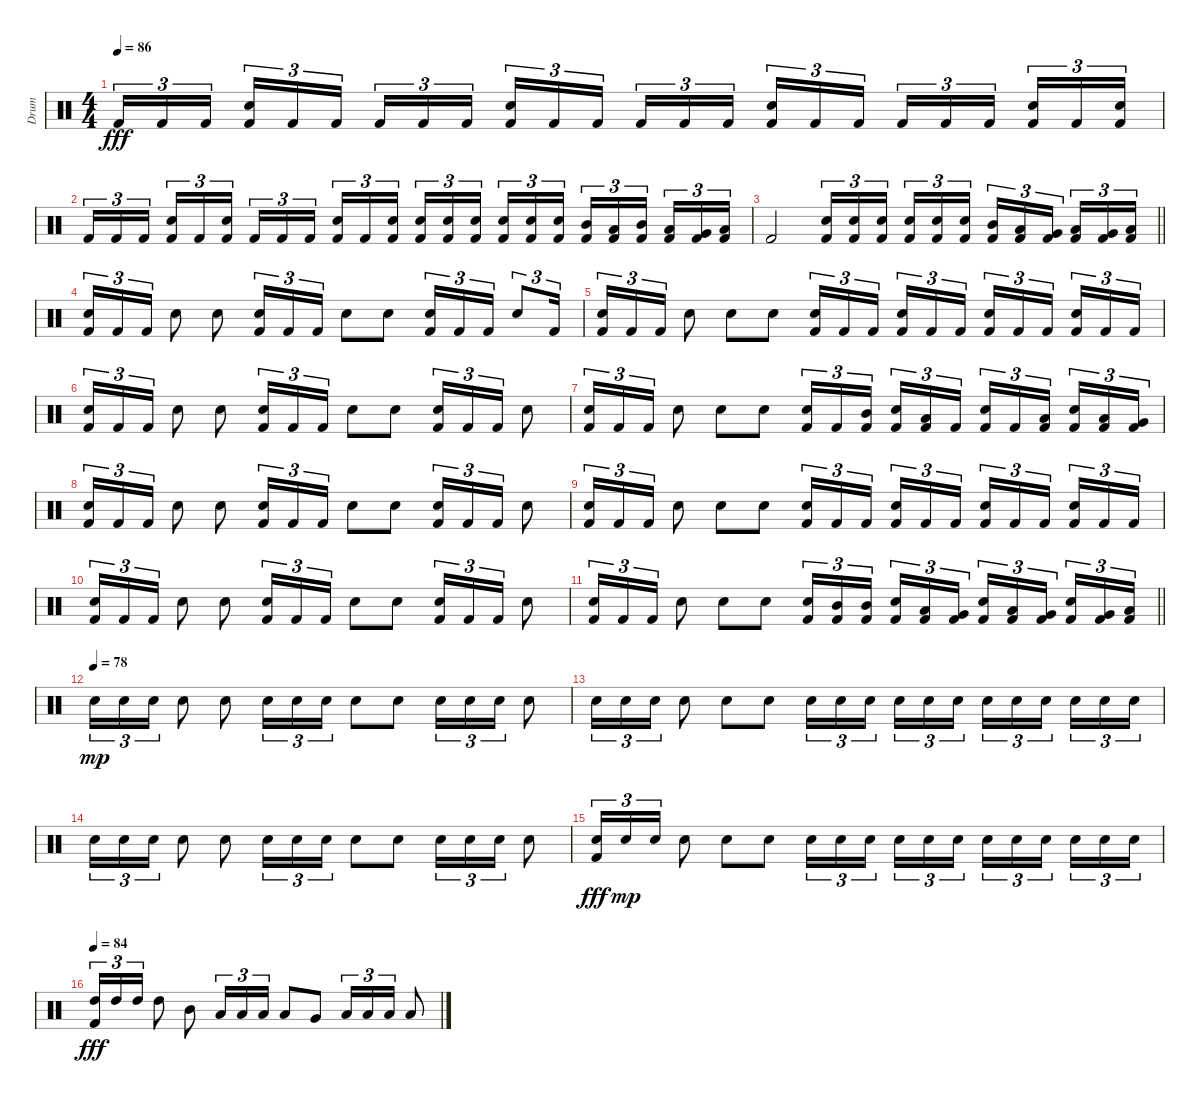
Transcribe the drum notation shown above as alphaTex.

\track ("Drum" "Drum") {instrument percussion}
\staff {score}
\articulation defaults
\ts (4 4)
\tempo 86
\clef neutral
\ks c "Kick (hit) 2".16{tu (3 2) dy fff} "Kick (hit) 2".16{tu (3 2)} "Kick (hit) 2".16{tu (3 2) beam splitsecondary}
("Snare (hit) 2" "Kick (hit) 2").16{tu (3 2)} "Kick (hit) 2".16{tu (3 2)} "Kick (hit) 2".16{tu (3 2)} "Kick (hit) 2".16{tu (3 2)} "Kick (hit) 2".16{tu (3 2)} "Kick (hit) 2".16{tu (3 2) beam splitsecondary} ("Snare (hit) 2" "Kick (hit) 2").16{tu (3 2)} "Kick (hit) 2".16{tu (3 2)} "Kick (hit) 2".16{tu (3 2)} "Kick (hit) 2".16{tu (3 2)} "Kick (hit) 2".16{tu (3 2)} "Kick (hit) 2".16{tu (3 2) beam splitsecondary} ("Snare (hit) 2" "Kick (hit) 2").16{tu (3 2)} "Kick (hit) 2".16{tu (3 2)} "Kick (hit) 2".16{tu (3 2)} "Kick (hit) 2".16{tu (3 2)} "Kick (hit) 2".16{tu (3 2)} "Kick (hit) 2".16{tu (3 2) beam splitsecondary} ("Snare (hit) 2" "Kick (hit) 2").16{tu (3 2)} "Kick (hit) 2".16{tu (3 2)} ("Snare (hit) 2" "Kick (hit) 2").16{tu (3 2)} |
"Kick (hit) 2".16{tu (3 2)} "Kick (hit) 2".16{tu (3 2)} "Kick (hit) 2".16{tu (3 2) beam splitsecondary} ("Snare (hit) 2" "Kick (hit) 2").16{tu (3 2)} "Kick (hit) 2".16{tu (3 2)} ("Snare (hit) 2" "Kick (hit) 2").16{tu (3 2)} "Kick (hit) 2".16{tu (3 2)} "Kick (hit) 2".16{tu (3 2)} "Kick (hit) 2".16{tu (3 2) beam splitsecondary} ("Snare (hit) 2" "Kick (hit) 2").16{tu (3 2)} "Kick (hit) 2".16{tu (3 2)} ("Snare (hit) 2" "Kick (hit) 2").16{tu (3 2)} ("Snare (hit) 2" "Kick (hit) 2").16{tu (3 2)} ("Snare (hit) 2" "Kick (hit) 2").16{tu (3 2)} ("Snare (hit) 2" "Kick (hit) 2").16{tu (3 2) beam splitsecondary} ("Snare (hit) 2" "Kick (hit) 2").16{tu (3 2)} ("Snare (hit) 2" "Kick (hit) 2").16{tu (3 2)} ("Snare (hit) 2" "Kick (hit) 2").16{tu (3 2)} ("Mid Tom (hit)" "Kick (hit) 2").16{tu (3 2)} ("Low Tom (hit)" "Kick (hit) 2").16{tu (3 2)} ("Mid Tom (hit)" "Kick (hit) 2").16{tu (3 2) beam splitsecondary} ("Low Tom (hit)" "Kick (hit) 2").16{tu (3 2)} ("Very Low Tom (hit)" "Kick (hit) 2").16{tu (3 2)} ("Low Floor Tom (hit)" "Kick (hit) 2").16{tu (3 2)} |
\barLineRight lightlight "Kick (hit) 2".2
("Snare (hit) 2" "Kick (hit) 2").16{tu (3 2)} ("Snare (hit) 2" "Kick (hit) 2").16{tu (3 2)} ("Snare (hit) 2" "Kick (hit) 2").16{tu (3 2) beam splitsecondary} ("Snare (hit) 2" "Kick (hit) 2").16{tu (3 2)} ("Snare (hit) 2" "Kick (hit) 2").16{tu (3 2)} ("Snare (hit) 2" "Kick (hit) 2").16{tu (3 2)} ("Mid Tom (hit)" "Kick (hit) 2").16{tu (3 2)} ("Low Tom (hit)" "Kick (hit) 2").16{tu (3 2)} ("Very Low Tom (hit)" "Kick (hit) 2").16{tu (3 2) beam splitsecondary} ("Low Tom (hit)" "Kick (hit) 2").16{tu (3 2)} ("Very Low Tom (hit)" "Kick (hit) 2").16{tu (3 2)} ("Low Floor Tom (hit)" "Kick (hit) 2").16{tu (3 2)} |
\section ("" "")
("Snare (hit) 2" "Kick (hit) 2").16{tu (3 2)} "Kick (hit) 2".16{tu (3 2)} "Kick (hit) 2".16{tu (3 2)} "Snare (hit) 2".8 "Snare (hit) 2".8 ("Snare (hit) 2" "Kick (hit) 2").16{tu (3 2)} "Kick (hit) 2".16{tu (3 2)} "Kick (hit) 2".16{tu (3 2)} "Snare (hit) 2".8 "Snare (hit) 2".8 ("Snare (hit) 2" "Kick (hit) 2").16{tu (3 2)} "Kick (hit) 2".16{tu (3 2)} "Kick (hit) 2".16{tu (3 2)} "Snare (hit) 2".8{tu (3 2)} "Kick (hit) 2".16{tu (3 2)} |
("Snare (hit) 2" "Kick (hit) 2").16{tu (3 2)} "Kick (hit) 2".16{tu (3 2)} "Kick (hit) 2".16{tu (3 2)} "Snare (hit) 2".8 "Snare (hit) 2".8 "Snare (hit) 2".8 ("Snare (hit) 2" "Kick (hit) 2").16{tu (3 2)} "Kick (hit) 2".16{tu (3 2)} "Kick (hit) 2".16{tu (3 2) beam splitsecondary} ("Snare (hit) 2" "Kick (hit) 2").16{tu (3 2)} "Kick (hit) 2".16{tu (3 2)} "Kick (hit) 2".16{tu (3 2)} ("Snare (hit) 2" "Kick (hit) 2").16{tu (3 2)} "Kick (hit) 2".16{tu (3 2)} "Kick (hit) 2".16{tu (3 2) beam splitsecondary} ("Snare (hit) 2" "Kick (hit) 2").16{tu (3 2)} "Kick (hit) 2".16{tu (3 2)} "Kick (hit) 2".16{tu (3 2)} |
("Snare (hit) 2" "Kick (hit) 2").16{tu (3 2)} "Kick (hit) 2".16{tu (3 2)} "Kick (hit) 2".16{tu (3 2)} "Snare (hit) 2".8 "Snare (hit) 2".8 ("Snare (hit) 2" "Kick (hit) 2").16{tu (3 2)} "Kick (hit) 2".16{tu (3 2)} "Kick (hit) 2".16{tu (3 2)} "Snare (hit) 2".8 "Snare (hit) 2".8 ("Snare (hit) 2" "Kick (hit) 2").16{tu (3 2)} "Kick (hit) 2".16{tu (3 2)} "Kick (hit) 2".16{tu (3 2)} "Snare (hit) 2".8 |
("Snare (hit) 2" "Kick (hit) 2").16{tu (3 2)} "Kick (hit) 2".16{tu (3 2)} "Kick (hit) 2".16{tu (3 2)} "Snare (hit) 2".8 "Snare (hit) 2".8 "Snare (hit) 2".8 ("Snare (hit) 2" "Kick (hit) 2").16{tu (3 2)} "Kick (hit) 2".16{tu (3 2)} ("Mid Tom (hit)" "Kick (hit) 2").16{tu (3 2) beam splitsecondary} ("Snare (hit) 2" "Kick (hit) 2").16{tu (3 2)} ("Low Tom (hit)" "Kick (hit) 2").16{tu (3 2)} "Kick (hit) 2".16{tu (3 2)} ("Snare (hit) 2" "Kick (hit) 2").16{tu (3 2)} "Kick (hit) 2".16{tu (3 2)} ("Low Tom (hit)" "Kick (hit) 2").16{tu (3 2) beam splitsecondary} ("Snare (hit) 2" "Kick (hit) 2").16{tu (3 2)} ("Low Tom (hit)" "Kick (hit) 2").16{tu (3 2)} ("Very Low Tom (hit)" "Kick (hit) 2").16{tu (3 2)} |
("Snare (hit) 2" "Kick (hit) 2").16{tu (3 2)} "Kick (hit) 2".16{tu (3 2)} "Kick (hit) 2".16{tu (3 2)} "Snare (hit) 2".8 "Snare (hit) 2".8 ("Snare (hit) 2" "Kick (hit) 2").16{tu (3 2)} "Kick (hit) 2".16{tu (3 2)} "Kick (hit) 2".16{tu (3 2)} "Snare (hit) 2".8 "Snare (hit) 2".8 ("Snare (hit) 2" "Kick (hit) 2").16{tu (3 2)} "Kick (hit) 2".16{tu (3 2)} "Kick (hit) 2".16{tu (3 2)} "Snare (hit) 2".8 |
("Snare (hit) 2" "Kick (hit) 2").16{tu (3 2)} "Kick (hit) 2".16{tu (3 2)} "Kick (hit) 2".16{tu (3 2)} "Snare (hit) 2".8 "Snare (hit) 2".8 "Snare (hit) 2".8 ("Snare (hit) 2" "Kick (hit) 2").16{tu (3 2)} "Kick (hit) 2".16{tu (3 2)} "Kick (hit) 2".16{tu (3 2) beam splitsecondary} ("Snare (hit) 2" "Kick (hit) 2").16{tu (3 2)} "Kick (hit) 2".16{tu (3 2)} "Kick (hit) 2".16{tu (3 2)} ("Snare (hit) 2" "Kick (hit) 2").16{tu (3 2)} "Kick (hit) 2".16{tu (3 2)} "Kick (hit) 2".16{tu (3 2) beam splitsecondary} ("Snare (hit) 2" "Kick (hit) 2").16{tu (3 2)} "Kick (hit) 2".16{tu (3 2)} "Kick (hit) 2".16{tu (3 2)} |
("Snare (hit) 2" "Kick (hit) 2").16{tu (3 2)} "Kick (hit) 2".16{tu (3 2)} "Kick (hit) 2".16{tu (3 2)} "Snare (hit) 2".8 "Snare (hit) 2".8 ("Snare (hit) 2" "Kick (hit) 2").16{tu (3 2)} "Kick (hit) 2".16{tu (3 2)} "Kick (hit) 2".16{tu (3 2)} "Snare (hit) 2".8 "Snare (hit) 2".8 ("Snare (hit) 2" "Kick (hit) 2").16{tu (3 2)} "Kick (hit) 2".16{tu (3 2)} "Kick (hit) 2".16{tu (3 2)} "Snare (hit) 2".8 |
\barLineRight lightlight
("Snare (hit) 2" "Kick (hit) 2").16{tu (3 2)} "Kick (hit) 2".16{tu (3 2)} "Kick (hit) 2".16{tu (3 2)} "Snare (hit) 2".8 "Snare (hit) 2".8 "Snare (hit) 2".8 ("Snare (hit) 2" "Kick (hit) 2").16{tu (3 2)} ("Mid Tom (hit)" "Kick (hit) 2").16{tu (3 2)} ("Mid Tom (hit)" "Kick (hit) 2").16{tu (3 2) beam splitsecondary} ("Snare (hit) 2" "Kick (hit) 2").16{tu (3 2)} ("Low Tom (hit)" "Kick (hit) 2").16{tu (3 2)} ("Very Low Tom (hit)" "Kick (hit) 2").16{tu (3 2)} ("Snare (hit) 2" "Kick (hit) 2").16{tu (3 2)} ("Low Tom (hit)" "Kick (hit) 2").16{tu (3 2)} ("Very Low Tom (hit)" "Kick (hit) 2").16{tu (3 2) beam splitsecondary} ("Snare (hit) 2" "Kick (hit) 2").16{tu (3 2)} ("Very Low Tom (hit)" "Kick (hit) 2").16{tu (3 2)} ("Low Floor Tom (hit)" "Kick (hit) 2").16{tu (3 2)} |
\section ("" "")
\tempo (78)
"Snare (hit) 2".16{tu (3 2) dy mp} "Snare (hit) 2".16{tu (3 2)} "Snare (hit) 2".16{tu (3 2)} "Snare (hit) 2".8 "Snare (hit) 2".8 "Snare (hit) 2".16{tu (3 2)} "Snare (hit) 2".16{tu (3 2)} "Snare (hit) 2".16{tu (3 2)} "Snare (hit) 2".8 "Snare (hit) 2".8 "Snare (hit) 2".16{tu (3 2)} "Snare (hit) 2".16{tu (3 2)} "Snare (hit) 2".16{tu (3 2)} "Snare (hit) 2".8 |
"Snare (hit) 2".16{tu (3 2)} "Snare (hit) 2".16{tu (3 2)} "Snare (hit) 2".16{tu (3 2)} "Snare (hit) 2".8 "Snare (hit) 2".8 "Snare (hit) 2".8 "Snare (hit) 2".16{tu (3 2)} "Snare (hit) 2".16{tu (3 2)} "Snare (hit) 2".16{tu (3 2) beam splitsecondary} "Snare (hit) 2".16{tu (3 2)} "Snare (hit) 2".16{tu (3 2)} "Snare (hit) 2".16{tu (3 2)} "Snare (hit) 2".16{tu (3 2)} "Snare (hit) 2".16{tu (3 2)} "Snare (hit) 2".16{tu (3 2) beam splitsecondary} "Snare (hit) 2".16{tu (3 2)} "Snare (hit) 2".16{tu (3 2)} "Snare (hit) 2".16{tu (3 2)} |
"Snare (hit) 2".16{tu (3 2)} "Snare (hit) 2".16{tu (3 2)} "Snare (hit) 2".16{tu (3 2)} "Snare (hit) 2".8 "Snare (hit) 2".8 "Snare (hit) 2".16{tu (3 2)} "Snare (hit) 2".16{tu (3 2)} "Snare (hit) 2".16{tu (3 2)} "Snare (hit) 2".8 "Snare (hit) 2".8 "Snare (hit) 2".16{tu (3 2)} "Snare (hit) 2".16{tu (3 2)} "Snare (hit) 2".16{tu (3 2)} "Snare (hit) 2".8 |
("Snare (hit) 2" "Kick (hit) 2").16{tu (3 2) dy fff} "Snare (hit) 2".16{tu (3 2) dy mp} "Snare (hit) 2".16{tu (3 2)} "Snare (hit) 2".8 "Snare (hit) 2".8 "Snare (hit) 2".8 "Snare (hit) 2".16{tu (3 2)} "Snare (hit) 2".16{tu (3 2)} "Snare (hit) 2".16{tu (3 2) beam splitsecondary} "Snare (hit) 2".16{tu (3 2)} "Snare (hit) 2".16{tu (3 2)} "Snare (hit) 2".16{tu (3 2)} "Snare (hit) 2".16{tu (3 2)} "Snare (hit) 2".16{tu (3 2)} "Snare (hit) 2".16{tu (3 2) beam splitsecondary} "Snare (hit) 2".16{tu (3 2)} "Snare (hit) 2".16{tu (3 2)} "Snare (hit) 2".16{tu (3 2)} |
\tempo 84
("High Tom (hit)" "Kick (hit) 2").16{tu (3 2) dy fff} "High Tom (hit)".16{tu (3 2)} "High Tom (hit)".16{tu (3 2)} "High Tom (hit)".8 "Mid Tom (hit)".8 "Low Tom (hit)".16{tu (3 2)} "Low Tom (hit)".16{tu (3 2)} "Low Tom (hit)".16{tu (3 2)} "Low Tom (hit)".8 "Very Low Tom (hit)".8 "Low Floor Tom (hit)".16{tu (3 2)} "Low Floor Tom (hit)".16{tu (3 2)} "Low Floor Tom (hit)".16{tu (3 2)} "Low Floor Tom (hit)".8
